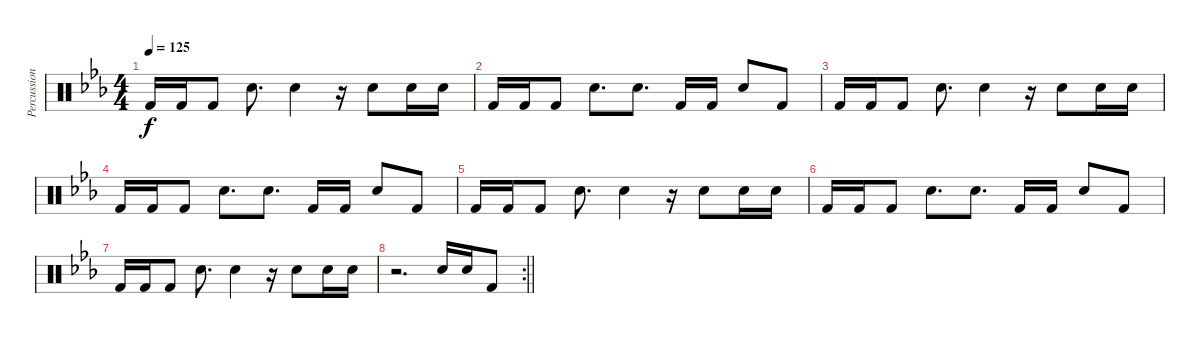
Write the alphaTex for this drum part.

\track ("Percussion" "Percussion") {instrument percussion}
\staff {score}
\articulation defaults
\ts (4 4)
\tempo 125
\clef neutral
\ks cminor "Kick (hit) 2".16{dy f} "Kick (hit) 2".16 "Kick (hit) 2".8 "Electric Snare (hit)".8{d} "Electric Snare (hit)".4
r.16 "Electric Snare (hit)".8 "Electric Snare (hit)".16 "Electric Snare (hit)".16 |
"Kick (hit) 2".16 "Kick (hit) 2".16 "Kick (hit) 2".8 "Electric Snare (hit)".8{d} "Electric Snare (hit)".8{d} "Kick (hit) 2".16 "Kick (hit) 2".16 "Electric Snare (hit)".8 "Kick (hit) 2".8 |
"Kick (hit) 2".16 "Kick (hit) 2".16 "Kick (hit) 2".8 "Electric Snare (hit)".8{d} "Electric Snare (hit)".4 r.16 "Electric Snare (hit)".8 "Electric Snare (hit)".16 "Electric Snare (hit)".16 |
"Kick (hit) 2".16 "Kick (hit) 2".16 "Kick (hit) 2".8 "Electric Snare (hit)".8{d} "Electric Snare (hit)".8{d} "Kick (hit) 2".16 "Kick (hit) 2".16 "Electric Snare (hit)".8 "Kick (hit) 2".8 |
"Kick (hit) 2".16 "Kick (hit) 2".16 "Kick (hit) 2".8 "Electric Snare (hit)".8{d} "Electric Snare (hit)".4 r.16 "Electric Snare (hit)".8 "Electric Snare (hit)".16 "Electric Snare (hit)".16 |
"Kick (hit) 2".16 "Kick (hit) 2".16 "Kick (hit) 2".8 "Electric Snare (hit)".8{d} "Electric Snare (hit)".8{d} "Kick (hit) 2".16 "Kick (hit) 2".16 "Electric Snare (hit)".8 "Kick (hit) 2".8 |
"Kick (hit) 2".16 "Kick (hit) 2".16 "Kick (hit) 2".8 "Electric Snare (hit)".8{d} "Electric Snare (hit)".4 r.16 "Electric Snare (hit)".8 "Electric Snare (hit)".16 "Electric Snare (hit)".16 |
\rc 2
\barLineRight lightlight
r.2{d} "Electric Snare (hit)".16 "Electric Snare (hit)".16 "Kick (hit) 2".8
